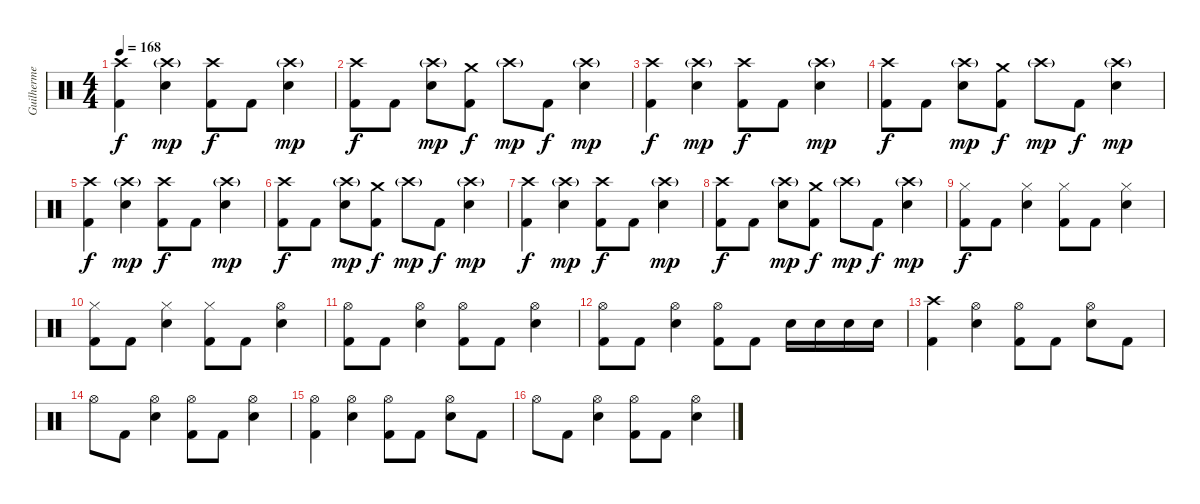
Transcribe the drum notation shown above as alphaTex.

\track ("Guilherme" "Guilherme") {instrument percussion}
\staff {score}
\articulation defaults
\ts (4 4)
\tempo 168
\clef neutral
\ks c
("Crash high (hit)" "Kick (hit) 2").4{dy f} ("Crash high (hit)"{g} "Snare (hit) 2").4{dy mp} ("Crash high (hit)" "Kick (hit) 2").8{dy f} "Kick (hit) 2".8 ("Crash high (hit)"{g} "Snare (hit) 2").4{dy mp} |
("Crash high (hit)" "Kick (hit) 2").8{dy f} "Kick (hit) 2".8 ("Crash high (hit)"{g} "Snare (hit) 2").8{dy mp} ("Crash medium (hit)" "Kick (hit) 2").8{dy f} "Crash high (hit)"{g}.8{dy mp} "Kick (hit) 2".8{dy f} ("Crash high (hit)"{g} "Snare (hit) 2").4{dy mp} |
("Crash high (hit)" "Kick (hit) 2").4{dy f} ("Crash high (hit)"{g} "Snare (hit) 2").4{dy mp} ("Crash high (hit)" "Kick (hit) 2").8{dy f} "Kick (hit) 2".8 ("Crash high (hit)"{g} "Snare (hit) 2").4{dy mp} |
("Crash high (hit)" "Kick (hit) 2").8{dy f} "Kick (hit) 2".8 ("Crash high (hit)"{g} "Snare (hit) 2").8{dy mp} ("Crash medium (hit)" "Kick (hit) 2").8{dy f} "Crash high (hit)"{g}.8{dy mp} "Kick (hit) 2".8{dy f} ("Crash high (hit)"{g} "Snare (hit) 2").4{dy mp} |
("Crash high (hit)" "Kick (hit) 2").4{dy f} ("Crash high (hit)"{g} "Snare (hit) 2").4{dy mp} ("Crash high (hit)" "Kick (hit) 2").8{dy f} "Kick (hit) 2".8 ("Crash high (hit)"{g} "Snare (hit) 2").4{dy mp} |
("Crash high (hit)" "Kick (hit) 2").8{dy f} "Kick (hit) 2".8 ("Crash high (hit)"{g} "Snare (hit) 2").8{dy mp} ("Crash medium (hit)" "Kick (hit) 2").8{dy f} "Crash high (hit)"{g}.8{dy mp} "Kick (hit) 2".8{dy f} ("Crash high (hit)"{g} "Snare (hit) 2").4{dy mp} |
("Crash high (hit)" "Kick (hit) 2").4{dy f} ("Crash high (hit)"{g} "Snare (hit) 2").4{dy mp} ("Crash high (hit)" "Kick (hit) 2").8{dy f} "Kick (hit) 2".8 ("Crash high (hit)"{g} "Snare (hit) 2").4{dy mp} |
("Crash high (hit)" "Kick (hit) 2").8{dy f} "Kick (hit) 2".8 ("Crash high (hit)"{g} "Snare (hit) 2").8{dy mp} ("Crash medium (hit)" "Kick (hit) 2").8{dy f} "Crash high (hit)"{g}.8{dy mp} "Kick (hit) 2".8{dy f} ("Crash high (hit)"{g} "Snare (hit) 2").4{dy mp} |
("Hi-Hat (closed)" "Kick (hit) 2").8{dy f} "Kick (hit) 2".8 ("Hi-Hat (closed)" "Snare (hit) 2").4 ("Hi-Hat (closed)" "Kick (hit) 2").8 "Kick (hit) 2".8 ("Hi-Hat (closed)" "Snare (hit) 2").4 |
("Hi-Hat (closed)" "Kick (hit) 2").8 "Kick (hit) 2".8 ("Hi-Hat (closed)" "Snare (hit) 2").4 ("Hi-Hat (closed)" "Kick (hit) 2").8 "Kick (hit) 2".8 ("Hi-Hat (open)" "Snare (hit) 2").4 |
("Hi-Hat (open)" "Kick (hit) 2").8 "Kick (hit) 2".8 ("Hi-Hat (open)" "Snare (hit) 2").4 ("Hi-Hat (open)" "Kick (hit) 2").8 "Kick (hit) 2".8 ("Hi-Hat (open)" "Snare (hit) 2").4 |
("Hi-Hat (open)" "Kick (hit) 2").8 "Kick (hit) 2".8 ("Hi-Hat (open)" "Snare (hit) 2").4 ("Hi-Hat (open)" "Kick (hit) 2").8 "Kick (hit) 2".8 "Snare (hit) 2".16 "Snare (hit) 2".16 "Snare (hit) 2".16 "Snare (hit) 2".16 |
("Crash high (hit)" "Kick (hit) 2").4 ("Hi-Hat (open)" "Snare (hit) 2").4 ("Hi-Hat (open)" "Kick (hit) 2").8 "Kick (hit) 2".8 ("Hi-Hat (open)" "Snare (hit) 2").8 "Kick (hit) 2".8 |
"Hi-Hat (open)".8 "Kick (hit) 2".8 ("Hi-Hat (open)" "Snare (hit) 2").4 ("Hi-Hat (open)" "Kick (hit) 2").8 "Kick (hit) 2".8 ("Hi-Hat (open)" "Snare (hit) 2").4 |
("Hi-Hat (open)" "Kick (hit) 2").4 ("Hi-Hat (open)" "Snare (hit) 2").4 ("Hi-Hat (open)" "Kick (hit) 2").8 "Kick (hit) 2".8 ("Hi-Hat (open)" "Snare (hit) 2").8 "Kick (hit) 2".8 |
"Hi-Hat (open)".8 "Kick (hit) 2".8 ("Hi-Hat (open)" "Snare (hit) 2").4 ("Hi-Hat (open)" "Kick (hit) 2").8 "Kick (hit) 2".8 ("Hi-Hat (open)" "Snare (hit) 2").4
